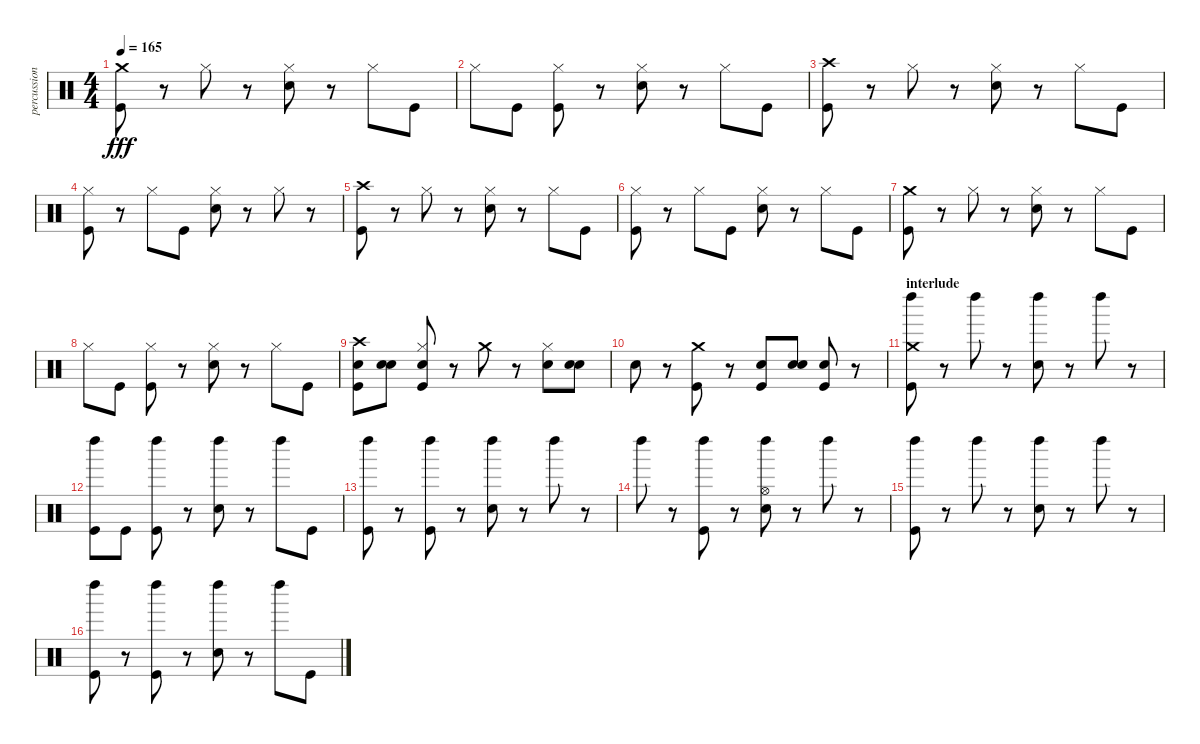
\track ("percussion (Paice)" "percussion") {instrument percussion}
\staff {score}
\articulation defaults
\ts (4 4)
\tempo 165
\clef neutral
\ks c
("Crash medium (hit)" "Kick (hit)").8{dy fff} r.8 "Hi-Hat (closed)".8 r.8 ("Snare (hit) 2" "Hi-Hat (closed)").8 r.8 "Hi-Hat (closed)".8 "Kick (hit)".8 |
"Hi-Hat (closed)".8 "Kick (hit)".8 ("Kick (hit)" "Hi-Hat (closed)").8 r.8 ("Snare (hit) 2" "Hi-Hat (closed)").8 r.8 "Hi-Hat (closed)".8 "Kick (hit)".8 |
("Crash high (hit)" "Kick (hit)").8 r.8 "Hi-Hat (closed)".8 r.8 ("Snare (hit) 2" "Hi-Hat (closed)").8 r.8 "Hi-Hat (closed)".8 "Kick (hit)".8 |
("Kick (hit)" "Hi-Hat (closed)").8 r.8 "Hi-Hat (closed)".8 "Kick (hit)".8 ("Snare (hit) 2" "Hi-Hat (closed)").8 r.8 "Hi-Hat (closed)".8 r.8 |
("Crash high (hit)" "Kick (hit)").8 r.8 "Hi-Hat (closed)".8 r.8 ("Snare (hit) 2" "Hi-Hat (closed)").8 r.8 "Hi-Hat (closed)".8 "Kick (hit)".8 |
("Kick (hit)" "Hi-Hat (closed)").8 r.8 "Hi-Hat (closed)".8 "Kick (hit)".8 ("Snare (hit) 2" "Hi-Hat (closed)").8 r.8 "Hi-Hat (closed)".8 "Kick (hit)".8 |
("Crash medium (hit)" "Kick (hit)").8 r.8 "Hi-Hat (closed)".8 r.8 ("Snare (hit) 2" "Hi-Hat (closed)").8 r.8 "Hi-Hat (closed)".8 "Kick (hit)".8 |
"Hi-Hat (closed)".8 "Kick (hit)".8 ("Kick (hit)" "Hi-Hat (closed)").8 r.8 ("Snare (hit) 2" "Hi-Hat (closed)").8 r.8 "Hi-Hat (closed)".8 "Kick (hit)".8 |
("Snare (hit) 2" "Crash high (hit)" "Kick (hit)").8 ("Snare (hit) 2" "Snare (hit) 2").8{volume 16} ("Kick (hit)" "Hi-Hat (closed)" "Snare (hit) 2").8 r.8 "Crash medium (hit)".8 r.8 ("Snare (hit) 2" "Hi-Hat (closed)").8 ("Snare (hit) 2" "Snare (hit) 2").8 |
"Snare (hit) 2".8 r.8 ("Kick (hit)" "Crash medium (hit)").8 r.8 ("Snare (hit) 2" "Kick (hit)").8 ("Snare (hit) 2" "Snare (hit) 2").8 ("Kick (hit)" "Snare (hit) 2").8 r.8 |
\section ("" "interlude")
("Kick (hit)" "Crash medium (hit)" "Left Maraca (hit)").8{volume 15} r.8 "Left Maraca (hit)".8 r.8 ("Snare (hit) 2" "Left Maraca (hit)").8 r.8 "Left Maraca (hit)".8 r.8 |
("Kick (hit)" "Left Maraca (hit)").8 "Kick (hit)".8 ("Kick (hit)" "Left Maraca (hit)").8 r.8 ("Snare (hit) 2" "Left Maraca (hit)").8 r.8 "Left Maraca (hit)".8 "Kick (hit)".8 |
("Kick (hit)" "Left Maraca (hit)").8 r.8 ("Kick (hit)" "Left Maraca (hit)").8 r.8 ("Left Maraca (hit)" "Snare (hit) 2").8 r.8 "Left Maraca (hit)".8 r.8 |
"Left Maraca (hit)".8 r.8 ("Left Maraca (hit)" "Kick (hit)").8 r.8 ("Left Maraca (hit)" "Snare (hit) 2" "Hi-Hat (open)").8 r.8 "Left Maraca (hit)".8 r.8 |
("Left Maraca (hit)" "Kick (hit)").8{volume 13} r.8 "Left Maraca (hit)".8 r.8 ("Left Maraca (hit)" "Snare (hit) 2").8 r.8 "Left Maraca (hit)".8 r.8 |
("Kick (hit)" "Left Maraca (hit)").8 r.8 ("Left Maraca (hit)" "Kick (hit)").8 r.8 ("Left Maraca (hit)" "Snare (hit) 2").8 r.8 "Left Maraca (hit)".8 "Kick (hit)".8
